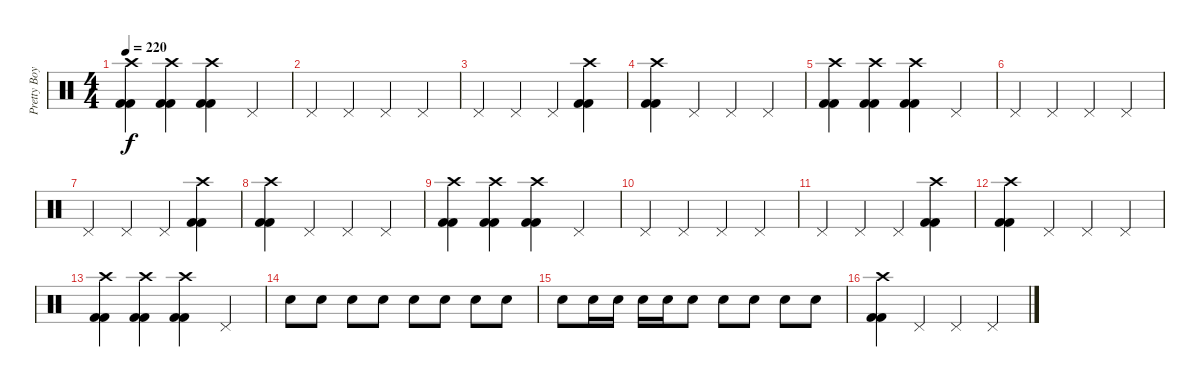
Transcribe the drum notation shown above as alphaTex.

\track ("Pretty Boy Geoff (Lars Drums)" "Pretty Boy") {instrument percussion}
\staff {score}
\articulation defaults
\ts (4 4)
\tempo 220
\clef neutral
\ks c
("Crash high (hit)" "Kick (hit) 2" "Kick (hit) 2").4{dy f} ("Crash high (hit)" "Kick (hit) 2" "Kick (hit) 2").4 ("Crash high (hit)" "Kick (hit) 2" "Kick (hit) 2").4 "Pedal Hi-Hat (hit)".4 |
"Pedal Hi-Hat (hit)".4 "Pedal Hi-Hat (hit)".4 "Pedal Hi-Hat (hit)".4 "Pedal Hi-Hat (hit)".4 |
"Pedal Hi-Hat (hit)".4 "Pedal Hi-Hat (hit)".4 "Pedal Hi-Hat (hit)".4 ("Crash high (hit)" "Kick (hit) 2" "Kick (hit) 2").4 |
("Crash high (hit)" "Kick (hit) 2" "Kick (hit) 2").4 "Pedal Hi-Hat (hit)".4 "Pedal Hi-Hat (hit)".4 "Pedal Hi-Hat (hit)".4 |
("Crash high (hit)" "Kick (hit) 2" "Kick (hit) 2").4 ("Crash high (hit)" "Kick (hit) 2" "Kick (hit) 2").4 ("Crash high (hit)" "Kick (hit) 2" "Kick (hit) 2").4 "Pedal Hi-Hat (hit)".4 |
"Pedal Hi-Hat (hit)".4 "Pedal Hi-Hat (hit)".4 "Pedal Hi-Hat (hit)".4 "Pedal Hi-Hat (hit)".4 |
"Pedal Hi-Hat (hit)".4 "Pedal Hi-Hat (hit)".4 "Pedal Hi-Hat (hit)".4 ("Crash high (hit)" "Kick (hit) 2" "Kick (hit) 2").4 |
("Crash high (hit)" "Kick (hit) 2" "Kick (hit) 2").4 "Pedal Hi-Hat (hit)".4 "Pedal Hi-Hat (hit)".4 "Pedal Hi-Hat (hit)".4 |
("Crash high (hit)" "Kick (hit) 2" "Kick (hit) 2").4 ("Crash high (hit)" "Kick (hit) 2" "Kick (hit) 2").4 ("Crash high (hit)" "Kick (hit) 2" "Kick (hit) 2").4 "Pedal Hi-Hat (hit)".4 |
"Pedal Hi-Hat (hit)".4 "Pedal Hi-Hat (hit)".4 "Pedal Hi-Hat (hit)".4 "Pedal Hi-Hat (hit)".4 |
"Pedal Hi-Hat (hit)".4 "Pedal Hi-Hat (hit)".4 "Pedal Hi-Hat (hit)".4 ("Crash high (hit)" "Kick (hit) 2" "Kick (hit) 2").4 |
("Crash high (hit)" "Kick (hit) 2" "Kick (hit) 2").4 "Pedal Hi-Hat (hit)".4 "Pedal Hi-Hat (hit)".4 "Pedal Hi-Hat (hit)".4 |
("Crash high (hit)" "Kick (hit) 2" "Kick (hit) 2").4 ("Crash high (hit)" "Kick (hit) 2" "Kick (hit) 2").4 ("Crash high (hit)" "Kick (hit) 2" "Kick (hit) 2").4 "Pedal Hi-Hat (hit)".4 |
"Electric Snare (hit)".8 "Electric Snare (hit)".8 "Electric Snare (hit)".8 "Electric Snare (hit)".8 "Electric Snare (hit)".8 "Electric Snare (hit)".8 "Electric Snare (hit)".8 "Electric Snare (hit)".8 |
"Electric Snare (hit)".8 "Electric Snare (hit)".16 "Electric Snare (hit)".16 "Electric Snare (hit)".16 "Electric Snare (hit)".16 "Electric Snare (hit)".8 "Electric Snare (hit)".8 "Electric Snare (hit)".8 "Electric Snare (hit)".8 "Electric Snare (hit)".8 |
("Crash high (hit)" "Kick (hit) 2" "Kick (hit) 2").4 "Pedal Hi-Hat (hit)".4 "Pedal Hi-Hat (hit)".4 "Pedal Hi-Hat (hit)".4
